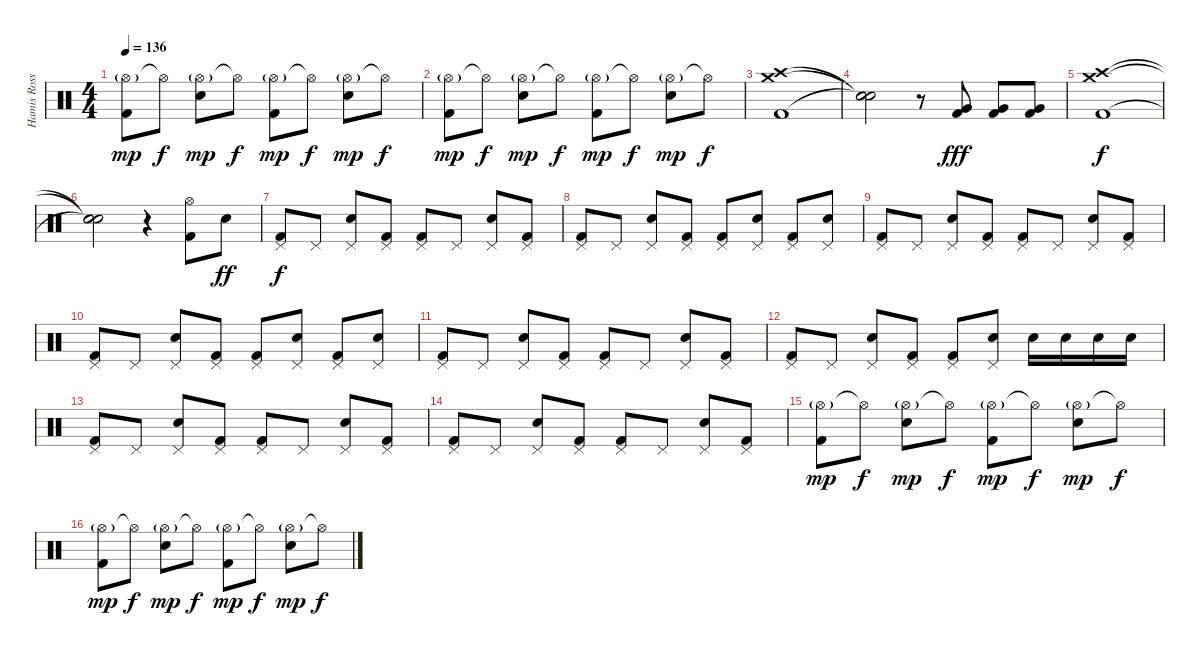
\track ("Hamis Rosser" "Hamis Ross") {instrument percussion}
\staff {score}
\articulation defaults
\ts (4 4)
\tempo 136
\clef neutral
\ks c
("Hi-Hat (open)"{g} "Kick (hit) 2").8{dy mp} "Hi-Hat (open)"{t}.8{dy f} ("Hi-Hat (open)"{g} "Electric Snare (hit)").8{dy mp} "Hi-Hat (open)"{t}.8{dy f} ("Hi-Hat (open)"{g} "Kick (hit) 2").8{dy mp} "Hi-Hat (open)"{t}.8{dy f} ("Hi-Hat (open)"{g} "Electric Snare (hit)").8{dy mp} "Hi-Hat (open)"{t}.8{dy f} |
("Hi-Hat (open)"{g} "Kick (hit) 2").8{dy mp} "Hi-Hat (open)"{t}.8{dy f} ("Hi-Hat (open)"{g} "Electric Snare (hit)").8{dy mp} "Hi-Hat (open)"{t}.8{dy f} ("Hi-Hat (open)"{g} "Kick (hit) 2").8{dy mp} "Hi-Hat (open)"{t}.8{dy f} ("Hi-Hat (open)"{g} "Electric Snare (hit)").8{dy mp} "Hi-Hat (open)"{t}.8{dy f} |
("Crash high (hit)" "Crash medium (hit)" "Kick (hit) 2").1 |
("Snare (hit)"{t} "Snare (hit)"{t} "Snare (hit)"{t}).2 r.8 ("Very Low Tom (hit)" "Kick (hit) 2").8{dy fff} ("Very Low Tom (hit)" "Kick (hit) 2").8 ("Very Low Tom (hit)" "Kick (hit) 2").8 |
("Crash high (hit)" "Crash medium (hit)" "Kick (hit) 2").1{dy f} |
("Snare (hit)"{t} "Snare (hit)"{t} "Snare (hit)"{t}).2 r.4 ("Hi-Hat (open)" "Kick (hit) 2").8 "Snare (hit) 2".8{dy ff} |
("Pedal Hi-Hat (hit)" "Kick (hit) 2").8{dy f} "Pedal Hi-Hat (hit)".8 ("Pedal Hi-Hat (hit)" "Electric Snare (hit)").8 ("Pedal Hi-Hat (hit)" "Kick (hit) 2").8 ("Pedal Hi-Hat (hit)" "Kick (hit) 2").8 "Pedal Hi-Hat (hit)".8 ("Pedal Hi-Hat (hit)" "Electric Snare (hit)").8 ("Pedal Hi-Hat (hit)" "Kick (hit) 2").8 |
("Pedal Hi-Hat (hit)" "Kick (hit) 2").8 "Pedal Hi-Hat (hit)".8 ("Pedal Hi-Hat (hit)" "Electric Snare (hit)").8 ("Pedal Hi-Hat (hit)" "Kick (hit) 2").8 ("Pedal Hi-Hat (hit)" "Kick (hit) 2").8 ("Pedal Hi-Hat (hit)" "Electric Snare (hit)").8 ("Pedal Hi-Hat (hit)" "Kick (hit) 2").8 ("Pedal Hi-Hat (hit)" "Electric Snare (hit)").8 |
("Pedal Hi-Hat (hit)" "Kick (hit) 2").8 "Pedal Hi-Hat (hit)".8 ("Pedal Hi-Hat (hit)" "Electric Snare (hit)").8 ("Pedal Hi-Hat (hit)" "Kick (hit) 2").8 ("Pedal Hi-Hat (hit)" "Kick (hit) 2").8 "Pedal Hi-Hat (hit)".8 ("Pedal Hi-Hat (hit)" "Electric Snare (hit)").8 ("Pedal Hi-Hat (hit)" "Kick (hit) 2").8 |
("Pedal Hi-Hat (hit)" "Kick (hit) 2").8 "Pedal Hi-Hat (hit)".8 ("Pedal Hi-Hat (hit)" "Electric Snare (hit)").8 ("Pedal Hi-Hat (hit)" "Kick (hit) 2").8 ("Pedal Hi-Hat (hit)" "Kick (hit) 2").8 ("Pedal Hi-Hat (hit)" "Electric Snare (hit)").8 ("Pedal Hi-Hat (hit)" "Kick (hit) 2").8 ("Pedal Hi-Hat (hit)" "Electric Snare (hit)").8 |
("Pedal Hi-Hat (hit)" "Kick (hit) 2").8 "Pedal Hi-Hat (hit)".8 ("Pedal Hi-Hat (hit)" "Electric Snare (hit)").8 ("Pedal Hi-Hat (hit)" "Kick (hit) 2").8 ("Pedal Hi-Hat (hit)" "Kick (hit) 2").8 "Pedal Hi-Hat (hit)".8 ("Pedal Hi-Hat (hit)" "Electric Snare (hit)").8 ("Pedal Hi-Hat (hit)" "Kick (hit) 2").8 |
("Pedal Hi-Hat (hit)" "Kick (hit) 2").8 "Pedal Hi-Hat (hit)".8 ("Pedal Hi-Hat (hit)" "Electric Snare (hit)").8 ("Pedal Hi-Hat (hit)" "Kick (hit) 2").8 ("Pedal Hi-Hat (hit)" "Kick (hit) 2").8 ("Pedal Hi-Hat (hit)" "Electric Snare (hit)").8 "Electric Snare (hit)".16 "Electric Snare (hit)".16 "Electric Snare (hit)".16 "Electric Snare (hit)".16 |
("Pedal Hi-Hat (hit)" "Kick (hit) 2").8 "Pedal Hi-Hat (hit)".8 ("Pedal Hi-Hat (hit)" "Electric Snare (hit)").8 ("Pedal Hi-Hat (hit)" "Kick (hit) 2").8 ("Pedal Hi-Hat (hit)" "Kick (hit) 2").8 "Pedal Hi-Hat (hit)".8 ("Pedal Hi-Hat (hit)" "Electric Snare (hit)").8 ("Pedal Hi-Hat (hit)" "Kick (hit) 2").8 |
("Pedal Hi-Hat (hit)" "Kick (hit) 2").8 "Pedal Hi-Hat (hit)".8 ("Pedal Hi-Hat (hit)" "Electric Snare (hit)").8 ("Pedal Hi-Hat (hit)" "Kick (hit) 2").8 ("Pedal Hi-Hat (hit)" "Kick (hit) 2").8 "Pedal Hi-Hat (hit)".8 ("Pedal Hi-Hat (hit)" "Electric Snare (hit)").8 ("Pedal Hi-Hat (hit)" "Kick (hit) 2").8 |
("Hi-Hat (open)"{g} "Kick (hit) 2").8{dy mp} "Hi-Hat (open)"{t}.8{dy f} ("Hi-Hat (open)"{g} "Electric Snare (hit)").8{dy mp} "Hi-Hat (open)"{t}.8{dy f} ("Hi-Hat (open)"{g} "Kick (hit) 2").8{dy mp} "Hi-Hat (open)"{t}.8{dy f} ("Hi-Hat (open)"{g} "Electric Snare (hit)").8{dy mp} "Hi-Hat (open)"{t}.8{dy f} |
("Hi-Hat (open)"{g} "Kick (hit) 2").8{dy mp} "Hi-Hat (open)"{t}.8{dy f} ("Hi-Hat (open)"{g} "Electric Snare (hit)").8{dy mp} "Hi-Hat (open)"{t}.8{dy f} ("Hi-Hat (open)"{g} "Kick (hit) 2").8{dy mp} "Hi-Hat (open)"{t}.8{dy f} ("Hi-Hat (open)"{g} "Electric Snare (hit)").8{dy mp} "Hi-Hat (open)"{t}.8{dy f}
